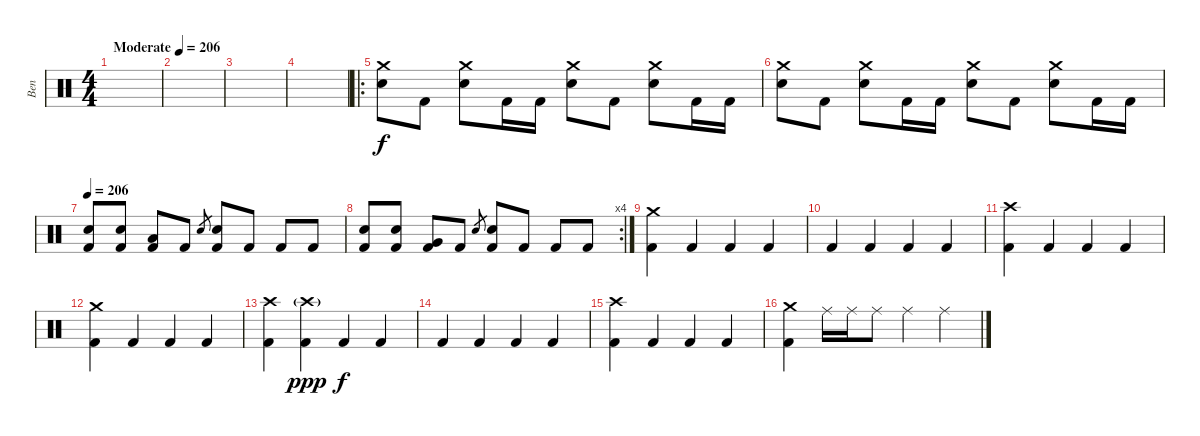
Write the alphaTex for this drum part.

\track ("Ben" "Ben") {instrument percussion}
\staff {score}
\articulation defaults
\ts (4 4)
\tempo (206 "Moderate")
\clef neutral
\ks c
|
|
|
|
\ro
("Crash medium (hit)" "Electric Snare (hit)").8 "Kick (hit) 2".8 ("Crash medium (hit)" "Electric Snare (hit)").8 "Kick (hit) 2".16 "Kick (hit) 2".16 ("Crash medium (hit)" "Electric Snare (hit)").8 "Kick (hit) 2".8 ("Crash medium (hit)" "Electric Snare (hit)").8 "Kick (hit) 2".16 "Kick (hit) 2".16 |
("Crash medium (hit)" "Electric Snare (hit)").8 "Kick (hit) 2".8 ("Crash medium (hit)" "Electric Snare (hit)").8 "Kick (hit) 2".16 "Kick (hit) 2".16 ("Crash medium (hit)" "Electric Snare (hit)").8 "Kick (hit) 2".8 ("Crash medium (hit)" "Electric Snare (hit)").8 "Kick (hit) 2".16 "Kick (hit) 2".16 |
\tempo 206
("Electric Snare (hit)" "Kick (hit) 2").8 ("Electric Snare (hit)" "Kick (hit) 2").8 ("Low Tom (hit)" "Kick (hit) 2").8 "Kick (hit) 2".8 "Electric Snare (hit)".8{gr} ("Electric Snare (hit)" "Kick (hit) 2").8 "Kick (hit) 2".8 "Kick (hit) 2".8 "Kick (hit) 2".8 |
\rc 4
("Electric Snare (hit)" "Kick (hit) 2").8 ("Electric Snare (hit)" "Kick (hit) 2").8 ("Very Low Tom (hit)" "Kick (hit) 2").8 "Kick (hit) 2".8 "Electric Snare (hit)".8{gr} ("Electric Snare (hit)" "Kick (hit) 2").8 "Kick (hit) 2".8 "Kick (hit) 2".8 "Kick (hit) 2".8 |
("Crash medium (hit)" "Kick (hit) 2").4 "Kick (hit) 2".4 "Kick (hit) 2".4 "Kick (hit) 2".4 |
"Kick (hit) 2".4 "Kick (hit) 2".4 "Kick (hit) 2".4 "Kick (hit) 2".4 |
("Crash high (hit)" "Kick (hit) 2").4 "Kick (hit) 2".4 "Kick (hit) 2".4 "Kick (hit) 2".4 |
("Crash medium (hit)" "Kick (hit) 2").4 "Kick (hit) 2".4 "Kick (hit) 2".4 "Kick (hit) 2".4 |
("Crash high (hit)" "Kick (hit) 2").4 ("Crash high (hit)"{g} "Kick (hit) 2").4{dy ppp} "Kick (hit) 2".4{dy f} "Kick (hit) 2".4 |
"Kick (hit) 2".4 "Kick (hit) 2".4 "Kick (hit) 2".4 "Kick (hit) 2".4 |
("Crash high (hit)" "Kick (hit) 2").4 "Kick (hit) 2".4 "Kick (hit) 2".4 "Kick (hit) 2".4 |
("Crash medium (hit)" "Kick (hit) 2").4 "Ride (middle)".16 "Ride (middle)".16 "Ride (middle)".8 "Ride (middle)".4 "Ride (middle)".4
